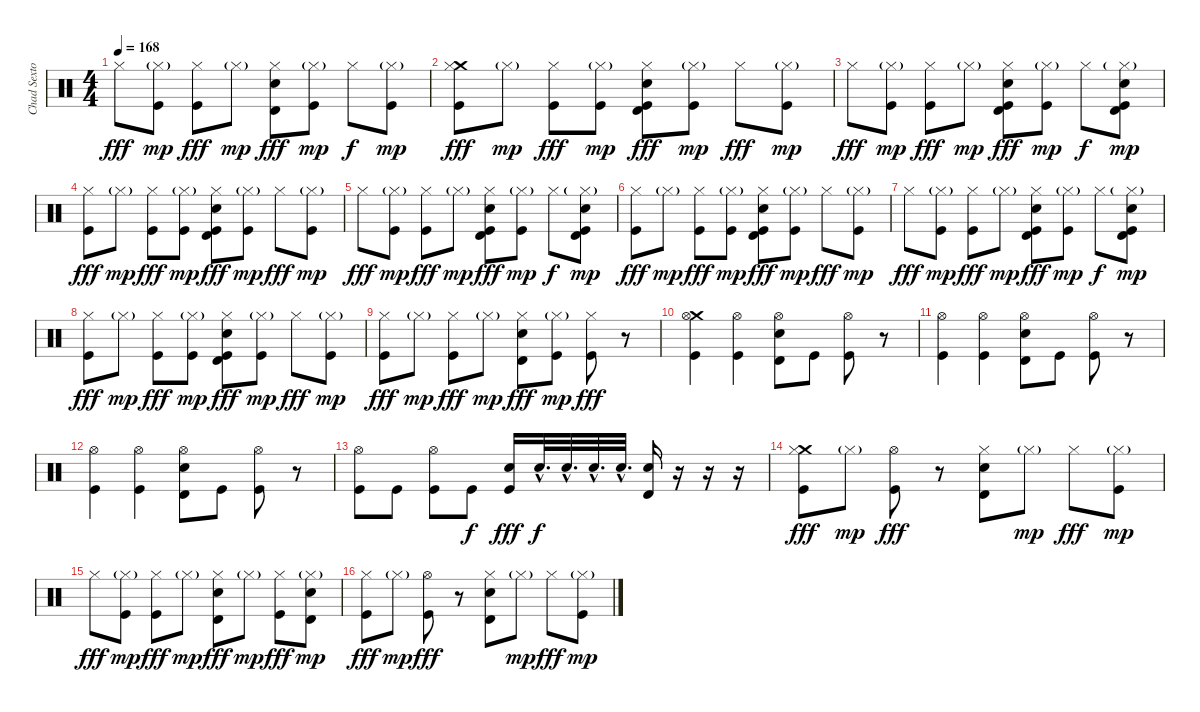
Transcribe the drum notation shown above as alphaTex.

\track ("Chad Sexton" "Chad Sexto") {instrument percussion}
\staff {score}
\articulation defaults
\ts (4 4)
\tempo 168
\clef neutral
\ks c "Hi-Hat (closed)".8{dy fff}
("Kick (hit)" "Hi-Hat (closed)"{g}).8{dy mp} ("Kick (hit)" "Hi-Hat (closed)").8{dy fff} "Hi-Hat (closed)"{g}.8{dy mp} ("Electric Snare (hit)" "Timbale high (hit)" "Hi-Hat (closed)").8{dy fff} ("Kick (hit)" "Hi-Hat (closed)"{g}).8{dy mp} "Hi-Hat (closed)".8{dy f} ("Kick (hit)" "Hi-Hat (closed)"{g}).8{dy mp} |
("Crash medium (hit)" "Kick (hit)" "Hi-Hat (closed)").8{dy fff} "Hi-Hat (closed)"{g}.8{dy mp} ("Kick (hit)" "Hi-Hat (closed)").8{dy fff} ("Kick (hit)" "Hi-Hat (closed)"{g}).8{dy mp} ("Timbale high (hit)" "Electric Snare (hit)" "Kick (hit)" "Hi-Hat (closed)").8{dy fff} ("Kick (hit)" "Hi-Hat (closed)"{g}).8{dy mp} "Hi-Hat (closed)".8{dy fff} ("Kick (hit)" "Hi-Hat (closed)"{g}).8{dy mp} |
"Hi-Hat (closed)".8{dy fff} ("Kick (hit)" "Hi-Hat (closed)"{g}).8{dy mp} ("Kick (hit)" "Hi-Hat (closed)").8{dy fff} "Hi-Hat (closed)"{g}.8{dy mp} ("Timbale high (hit)" "Electric Snare (hit)" "Kick (hit)" "Hi-Hat (closed)").8{dy fff} ("Kick (hit)" "Hi-Hat (closed)"{g}).8{dy mp} "Hi-Hat (closed)".8{dy f} ("Timbale high (hit)" "Electric Snare (hit)" "Kick (hit)" "Hi-Hat (closed)"{g}).8{dy mp} |
("Kick (hit)" "Hi-Hat (closed)").8{dy fff} "Hi-Hat (closed)"{g}.8{dy mp} ("Kick (hit)" "Hi-Hat (closed)").8{dy fff} ("Kick (hit)" "Hi-Hat (closed)"{g}).8{dy mp} ("Timbale high (hit)" "Electric Snare (hit)" "Kick (hit)" "Hi-Hat (closed)").8{dy fff} ("Kick (hit)" "Hi-Hat (closed)"{g}).8{dy mp} "Hi-Hat (closed)".8{dy fff} ("Kick (hit)" "Hi-Hat (closed)"{g}).8{dy mp} |
"Hi-Hat (closed)".8{dy fff} ("Kick (hit)" "Hi-Hat (closed)"{g}).8{dy mp} ("Kick (hit)" "Hi-Hat (closed)").8{dy fff} "Hi-Hat (closed)"{g}.8{dy mp} ("Timbale high (hit)" "Electric Snare (hit)" "Kick (hit)" "Hi-Hat (closed)").8{dy fff} ("Kick (hit)" "Hi-Hat (closed)"{g}).8{dy mp} "Hi-Hat (closed)".8{dy f} ("Timbale high (hit)" "Electric Snare (hit)" "Kick (hit)" "Hi-Hat (closed)"{g}).8{dy mp} |
("Kick (hit)" "Hi-Hat (closed)").8{dy fff} "Hi-Hat (closed)"{g}.8{dy mp} ("Kick (hit)" "Hi-Hat (closed)").8{dy fff} ("Kick (hit)" "Hi-Hat (closed)"{g}).8{dy mp} ("Timbale high (hit)" "Electric Snare (hit)" "Kick (hit)" "Hi-Hat (closed)").8{dy fff} ("Kick (hit)" "Hi-Hat (closed)"{g}).8{dy mp} "Hi-Hat (closed)".8{dy fff} ("Kick (hit)" "Hi-Hat (closed)"{g}).8{dy mp} |
"Hi-Hat (closed)".8{dy fff} ("Kick (hit)" "Hi-Hat (closed)"{g}).8{dy mp} ("Kick (hit)" "Hi-Hat (closed)").8{dy fff} "Hi-Hat (closed)"{g}.8{dy mp} ("Timbale high (hit)" "Electric Snare (hit)" "Kick (hit)" "Hi-Hat (closed)").8{dy fff} ("Kick (hit)" "Hi-Hat (closed)"{g}).8{dy mp} "Hi-Hat (closed)".8{dy f} ("Timbale high (hit)" "Electric Snare (hit)" "Kick (hit)" "Hi-Hat (closed)"{g}).8{dy mp} |
("Kick (hit)" "Hi-Hat (closed)").8{dy fff} "Hi-Hat (closed)"{g}.8{dy mp} ("Kick (hit)" "Hi-Hat (closed)").8{dy fff} ("Kick (hit)" "Hi-Hat (closed)"{g}).8{dy mp} ("Timbale high (hit)" "Electric Snare (hit)" "Kick (hit)" "Hi-Hat (closed)").8{dy fff} ("Kick (hit)" "Hi-Hat (closed)"{g}).8{dy mp} "Hi-Hat (closed)".8{dy fff} ("Kick (hit)" "Hi-Hat (closed)"{g}).8{dy mp} |
("Kick (hit)" "Hi-Hat (closed)").8{dy fff} "Hi-Hat (closed)"{g}.8{dy mp} ("Kick (hit)" "Hi-Hat (closed)").8{dy fff} "Hi-Hat (closed)"{g}.8{dy mp} ("Timbale high (hit)" "Electric Snare (hit)" "Hi-Hat (closed)").8{dy fff} ("Kick (hit)" "Hi-Hat (closed)"{g}).8{dy mp} ("Kick (hit)" "Hi-Hat (closed)").8{dy fff} r.8 |
("Crash medium (hit)" "Hi-Hat (open)" "Kick (hit)").4 ("Hi-Hat (open)" "Kick (hit)").4 ("Hi-Hat (open)" "Electric Snare (hit)" "Timbale high (hit)").8 "Kick (hit)".8 ("Hi-Hat (open)" "Kick (hit)").8 r.8 |
("Hi-Hat (open)" "Kick (hit)").4 ("Hi-Hat (open)" "Kick (hit)").4 ("Hi-Hat (open)" "Electric Snare (hit)" "Timbale high (hit)").8 "Kick (hit)".8 ("Hi-Hat (open)" "Kick (hit)").8 r.8 |
("Hi-Hat (open)" "Kick (hit)").4 ("Hi-Hat (open)" "Kick (hit)").4 ("Hi-Hat (open)" "Electric Snare (hit)" "Timbale high (hit)").8 "Kick (hit)".8 ("Hi-Hat (open)" "Kick (hit)").8 r.8 |
("Hi-Hat (open)" "Kick (hit)").8 "Kick (hit)".8 ("Hi-Hat (open)" "Kick (hit)").8 "Kick (hit)".8{dy f} ("Electric Snare (hit)" "Kick (hit)").16{dy fff} "Electric Snare (hit)"{hac}.32{d dy f} "Electric Snare (hit)"{hac}.32{d} "Electric Snare (hit)"{hac}.32{d} "Electric Snare (hit)"{hac}.32{d} ("Electric Snare (hit)" "Timbale high (hit)").16 r.16 r.16 r.16 |
("Crash medium (hit)" "Kick (hit)" "Hi-Hat (closed)").8{dy fff} "Hi-Hat (closed)"{g}.8{dy mp} ("Kick (hit)" "Hi-Hat (open)").8{dy fff} r.8 ("Electric Snare (hit)" "Timbale high (hit)" "Hi-Hat (closed)").8 "Hi-Hat (closed)"{g}.8{dy mp} "Hi-Hat (closed)".8{dy fff} ("Kick (hit)" "Hi-Hat (closed)"{g}).8{dy mp} |
"Hi-Hat (closed)".8{dy fff} ("Kick (hit)" "Hi-Hat (closed)"{g}).8{dy mp} ("Kick (hit)" "Hi-Hat (closed)").8{dy fff} "Hi-Hat (closed)"{g}.8{dy mp} ("Electric Snare (hit)" "Timbale high (hit)" "Hi-Hat (closed)").8{dy fff} "Hi-Hat (closed)"{g}.8{dy mp} ("Kick (hit)" "Hi-Hat (closed)").8{dy fff} ("Electric Snare (hit)" "Timbale high (hit)" "Hi-Hat (closed)"{g}).8{dy mp} |
("Kick (hit)" "Hi-Hat (closed)").8{dy fff} "Hi-Hat (closed)"{g}.8{dy mp} ("Kick (hit)" "Hi-Hat (open)").8{dy fff} r.8 ("Electric Snare (hit)" "Timbale high (hit)" "Hi-Hat (closed)").8 "Hi-Hat (closed)"{g}.8{dy mp} "Hi-Hat (closed)".8{dy fff} ("Kick (hit)" "Hi-Hat (closed)"{g}).8{dy mp}
